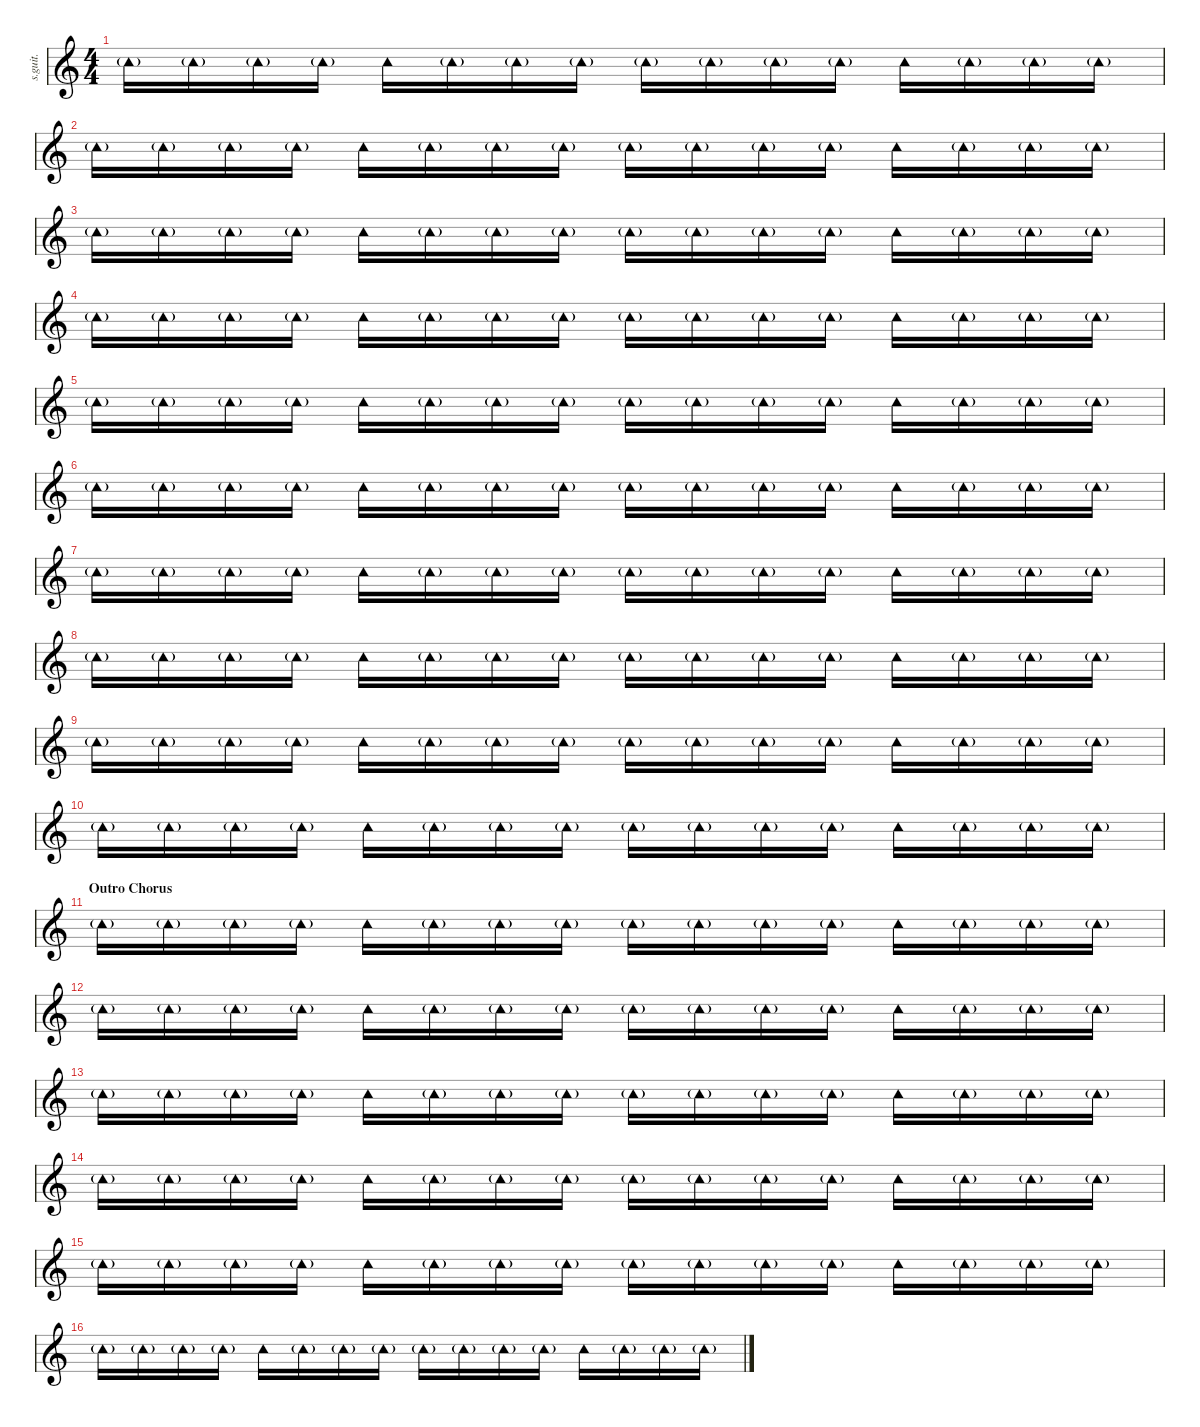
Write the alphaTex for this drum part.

\defaultSystemsLayout 4
\hideDynamics
\bracketExtendMode nobrackets
\track ("Tambourine" "s.guit.") {instrument percussion}
\staff {score}
\articulation defaults
\ts (4 4)
\tempo (136 hide)
\clef g2
\ks c "Tambourine (hit)"{g}.16{dy pp} "Tambourine (hit)"{g}.16 "Tambourine (hit)"{g}.16 "Tambourine (hit)"{g}.16 "Tambourine (hit)".16{dy mp} "Tambourine (hit)"{g}.16{dy pp} "Tambourine (hit)"{g}.16 "Tambourine (hit)"{g}.16 "Tambourine (hit)"{g}.16 "Tambourine (hit)"{g}.16 "Tambourine (hit)"{g}.16 "Tambourine (hit)"{g}.16 "Tambourine (hit)".16{dy mp} "Tambourine (hit)"{g}.16{dy pp} "Tambourine (hit)"{g}.16 "Tambourine (hit)"{g}.16
|
"Tambourine (hit)"{g}.16 "Tambourine (hit)"{g}.16 "Tambourine (hit)"{g}.16 "Tambourine (hit)"{g}.16 "Tambourine (hit)".16{dy mp} "Tambourine (hit)"{g}.16{dy pp} "Tambourine (hit)"{g}.16 "Tambourine (hit)"{g}.16 "Tambourine (hit)"{g}.16 "Tambourine (hit)"{g}.16 "Tambourine (hit)"{g}.16 "Tambourine (hit)"{g}.16 "Tambourine (hit)".16{dy mp} "Tambourine (hit)"{g}.16{dy pp} "Tambourine (hit)"{g}.16 "Tambourine (hit)"{g}.16 |
"Tambourine (hit)"{g}.16 "Tambourine (hit)"{g}.16 "Tambourine (hit)"{g}.16 "Tambourine (hit)"{g}.16 "Tambourine (hit)".16{dy mp} "Tambourine (hit)"{g}.16{dy pp} "Tambourine (hit)"{g}.16 "Tambourine (hit)"{g}.16 "Tambourine (hit)"{g}.16 "Tambourine (hit)"{g}.16 "Tambourine (hit)"{g}.16 "Tambourine (hit)"{g}.16 "Tambourine (hit)".16{dy mp} "Tambourine (hit)"{g}.16{dy pp} "Tambourine (hit)"{g}.16 "Tambourine (hit)"{g}.16 |
"Tambourine (hit)"{g}.16 "Tambourine (hit)"{g}.16 "Tambourine (hit)"{g}.16 "Tambourine (hit)"{g}.16 "Tambourine (hit)".16{dy mp} "Tambourine (hit)"{g}.16{dy pp} "Tambourine (hit)"{g}.16 "Tambourine (hit)"{g}.16 "Tambourine (hit)"{g}.16 "Tambourine (hit)"{g}.16 "Tambourine (hit)"{g}.16 "Tambourine (hit)"{g}.16 "Tambourine (hit)".16{dy mp} "Tambourine (hit)"{g}.16{dy pp} "Tambourine (hit)"{g}.16 "Tambourine (hit)"{g}.16 |
"Tambourine (hit)"{g}.16 "Tambourine (hit)"{g}.16 "Tambourine (hit)"{g}.16 "Tambourine (hit)"{g}.16 "Tambourine (hit)".16{dy mp} "Tambourine (hit)"{g}.16{dy pp} "Tambourine (hit)"{g}.16 "Tambourine (hit)"{g}.16 "Tambourine (hit)"{g}.16 "Tambourine (hit)"{g}.16 "Tambourine (hit)"{g}.16 "Tambourine (hit)"{g}.16 "Tambourine (hit)".16{dy mp} "Tambourine (hit)"{g}.16{dy pp} "Tambourine (hit)"{g}.16 "Tambourine (hit)"{g}.16 |
"Tambourine (hit)"{g}.16 "Tambourine (hit)"{g}.16 "Tambourine (hit)"{g}.16 "Tambourine (hit)"{g}.16 "Tambourine (hit)".16{dy mp} "Tambourine (hit)"{g}.16{dy pp} "Tambourine (hit)"{g}.16 "Tambourine (hit)"{g}.16 "Tambourine (hit)"{g}.16 "Tambourine (hit)"{g}.16 "Tambourine (hit)"{g}.16 "Tambourine (hit)"{g}.16 "Tambourine (hit)".16{dy mp} "Tambourine (hit)"{g}.16{dy pp} "Tambourine (hit)"{g}.16 "Tambourine (hit)"{g}.16 |
"Tambourine (hit)"{g}.16 "Tambourine (hit)"{g}.16 "Tambourine (hit)"{g}.16 "Tambourine (hit)"{g}.16 "Tambourine (hit)".16{dy mp} "Tambourine (hit)"{g}.16{dy pp} "Tambourine (hit)"{g}.16 "Tambourine (hit)"{g}.16 "Tambourine (hit)"{g}.16 "Tambourine (hit)"{g}.16 "Tambourine (hit)"{g}.16 "Tambourine (hit)"{g}.16 "Tambourine (hit)".16{dy mp} "Tambourine (hit)"{g}.16{dy pp} "Tambourine (hit)"{g}.16 "Tambourine (hit)"{g}.16 |
"Tambourine (hit)"{g}.16 "Tambourine (hit)"{g}.16 "Tambourine (hit)"{g}.16 "Tambourine (hit)"{g}.16 "Tambourine (hit)".16{dy mp} "Tambourine (hit)"{g}.16{dy pp} "Tambourine (hit)"{g}.16 "Tambourine (hit)"{g}.16 "Tambourine (hit)"{g}.16 "Tambourine (hit)"{g}.16 "Tambourine (hit)"{g}.16 "Tambourine (hit)"{g}.16 "Tambourine (hit)".16{dy mp} "Tambourine (hit)"{g}.16{dy pp} "Tambourine (hit)"{g}.16 "Tambourine (hit)"{g}.16 |
"Tambourine (hit)"{g}.16 "Tambourine (hit)"{g}.16 "Tambourine (hit)"{g}.16 "Tambourine (hit)"{g}.16 "Tambourine (hit)".16{dy mp} "Tambourine (hit)"{g}.16{dy pp} "Tambourine (hit)"{g}.16 "Tambourine (hit)"{g}.16 "Tambourine (hit)"{g}.16 "Tambourine (hit)"{g}.16 "Tambourine (hit)"{g}.16 "Tambourine (hit)"{g}.16 "Tambourine (hit)".16{dy mp} "Tambourine (hit)"{g}.16{dy pp} "Tambourine (hit)"{g}.16 "Tambourine (hit)"{g}.16 |
"Tambourine (hit)"{g}.16 "Tambourine (hit)"{g}.16 "Tambourine (hit)"{g}.16 "Tambourine (hit)"{g}.16 "Tambourine (hit)".16{dy mp} "Tambourine (hit)"{g}.16{dy pp} "Tambourine (hit)"{g}.16 "Tambourine (hit)"{g}.16 "Tambourine (hit)"{g}.16 "Tambourine (hit)"{g}.16 "Tambourine (hit)"{g}.16 "Tambourine (hit)"{g}.16 "Tambourine (hit)".16{dy mp} "Tambourine (hit)"{g}.16{dy pp} "Tambourine (hit)"{g}.16 "Tambourine (hit)"{g}.16 |
\section ("" "Outro Chorus ")
"Tambourine (hit)"{g}.16 "Tambourine (hit)"{g}.16 "Tambourine (hit)"{g}.16 "Tambourine (hit)"{g}.16 "Tambourine (hit)".16{dy mp} "Tambourine (hit)"{g}.16{dy pp} "Tambourine (hit)"{g}.16 "Tambourine (hit)"{g}.16 "Tambourine (hit)"{g}.16 "Tambourine (hit)"{g}.16 "Tambourine (hit)"{g}.16 "Tambourine (hit)"{g}.16 "Tambourine (hit)".16{dy mp} "Tambourine (hit)"{g}.16{dy pp} "Tambourine (hit)"{g}.16 "Tambourine (hit)"{g}.16 |
"Tambourine (hit)"{g}.16 "Tambourine (hit)"{g}.16 "Tambourine (hit)"{g}.16 "Tambourine (hit)"{g}.16 "Tambourine (hit)".16{dy mp} "Tambourine (hit)"{g}.16{dy pp} "Tambourine (hit)"{g}.16 "Tambourine (hit)"{g}.16 "Tambourine (hit)"{g}.16 "Tambourine (hit)"{g}.16 "Tambourine (hit)"{g}.16 "Tambourine (hit)"{g}.16 "Tambourine (hit)".16{dy mp} "Tambourine (hit)"{g}.16{dy pp} "Tambourine (hit)"{g}.16 "Tambourine (hit)"{g}.16 |
"Tambourine (hit)"{g}.16 "Tambourine (hit)"{g}.16 "Tambourine (hit)"{g}.16 "Tambourine (hit)"{g}.16 "Tambourine (hit)".16{dy mp} "Tambourine (hit)"{g}.16{dy pp} "Tambourine (hit)"{g}.16 "Tambourine (hit)"{g}.16 "Tambourine (hit)"{g}.16 "Tambourine (hit)"{g}.16 "Tambourine (hit)"{g}.16 "Tambourine (hit)"{g}.16 "Tambourine (hit)".16{dy mp} "Tambourine (hit)"{g}.16{dy pp} "Tambourine (hit)"{g}.16 "Tambourine (hit)"{g}.16 |
"Tambourine (hit)"{g}.16 "Tambourine (hit)"{g}.16 "Tambourine (hit)"{g}.16 "Tambourine (hit)"{g}.16 "Tambourine (hit)".16{dy mp} "Tambourine (hit)"{g}.16{dy pp} "Tambourine (hit)"{g}.16 "Tambourine (hit)"{g}.16 "Tambourine (hit)"{g}.16 "Tambourine (hit)"{g}.16 "Tambourine (hit)"{g}.16 "Tambourine (hit)"{g}.16 "Tambourine (hit)".16{dy mp} "Tambourine (hit)"{g}.16{dy pp} "Tambourine (hit)"{g}.16 "Tambourine (hit)"{g}.16 |
"Tambourine (hit)"{g}.16 "Tambourine (hit)"{g}.16 "Tambourine (hit)"{g}.16 "Tambourine (hit)"{g}.16 "Tambourine (hit)".16{dy mp} "Tambourine (hit)"{g}.16{dy pp} "Tambourine (hit)"{g}.16 "Tambourine (hit)"{g}.16 "Tambourine (hit)"{g}.16 "Tambourine (hit)"{g}.16 "Tambourine (hit)"{g}.16 "Tambourine (hit)"{g}.16 "Tambourine (hit)".16{dy mp} "Tambourine (hit)"{g}.16{dy pp} "Tambourine (hit)"{g}.16 "Tambourine (hit)"{g}.16 |
"Tambourine (hit)"{g}.16 "Tambourine (hit)"{g}.16 "Tambourine (hit)"{g}.16 "Tambourine (hit)"{g}.16 "Tambourine (hit)".16{dy mp} "Tambourine (hit)"{g}.16{dy pp} "Tambourine (hit)"{g}.16 "Tambourine (hit)"{g}.16 "Tambourine (hit)"{g}.16 "Tambourine (hit)"{g}.16 "Tambourine (hit)"{g}.16 "Tambourine (hit)"{g}.16 "Tambourine (hit)".16{dy mp} "Tambourine (hit)"{g}.16{dy pp} "Tambourine (hit)"{g}.16 "Tambourine (hit)"{g}.16
